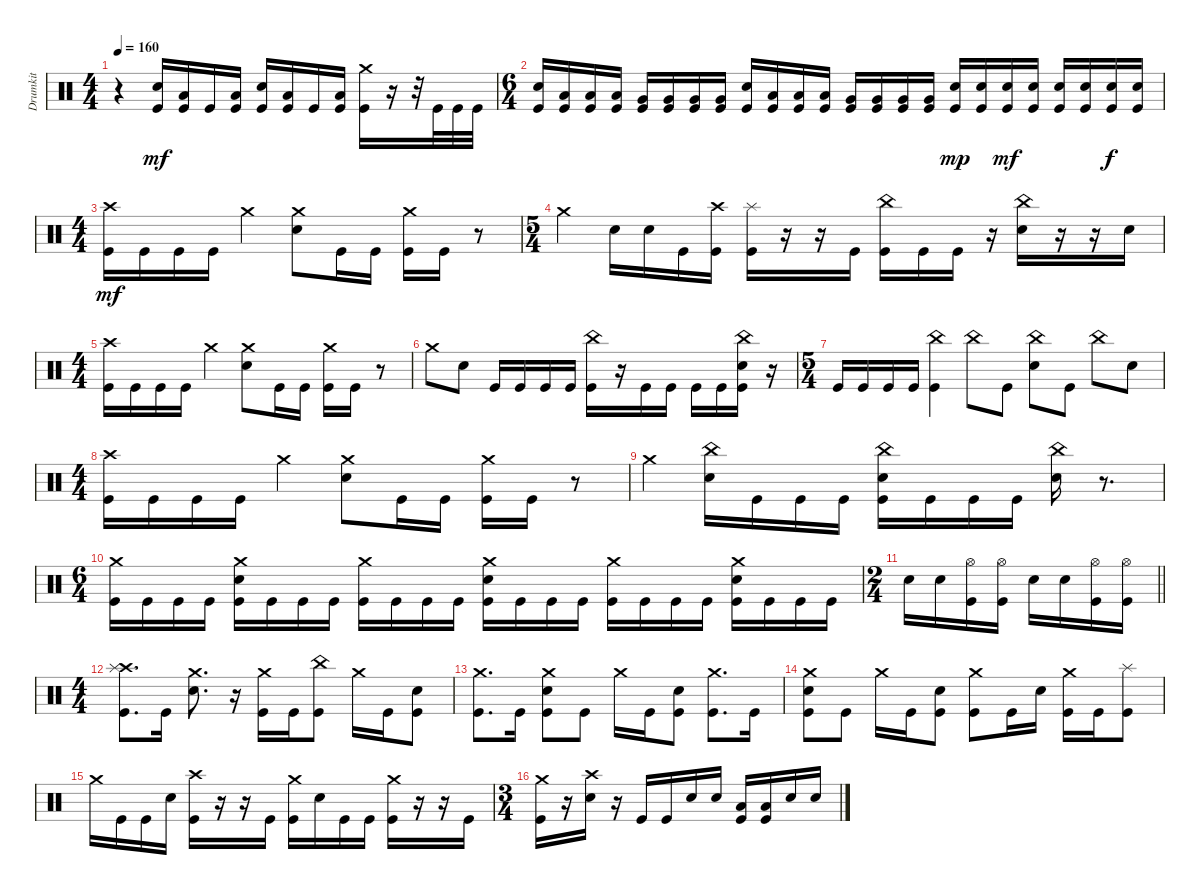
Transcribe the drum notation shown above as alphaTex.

\track ("Drumkit" "Drumkit") {instrument percussion}
\staff {score}
\articulation defaults
\ts (4 4)
\tempo 160
\clef neutral
\ks c
r.4{dy mf} ("Snare (hit) 2" "Kick (hit)").16 ("Kick (hit)" "Low Tom (hit)").16 "Kick (hit)".16 ("Kick (hit)" "Low Tom (hit)").16 ("Kick (hit)" "Snare (hit) 2").16 ("Kick (hit)" "Low Tom (hit)").16 "Kick (hit)".16 ("Kick (hit)" "Low Tom (hit)").16 ("Kick (hit)" "Crash medium (hit)").16 r.16 r.32 "Kick (hit)".32 "Kick (hit)".32 "Kick (hit)".32 |
\ts (6 4)
("Snare (hit) 2" "Kick (hit)").16 ("Kick (hit)" "Low Tom (hit)").16 ("Kick (hit)" "Low Tom (hit)").16 ("Kick (hit)" "Low Tom (hit)").16 ("Kick (hit)" "Very Low Tom (hit)").16 ("Kick (hit)" "Very Low Tom (hit)").16 ("Kick (hit)" "Very Low Tom (hit)").16 ("Kick (hit)" "Very Low Tom (hit)").16 ("Kick (hit)" "Snare (hit) 2").16 ("Kick (hit)" "Low Tom (hit)").16 ("Kick (hit)" "Low Tom (hit)").16 ("Kick (hit)" "Low Tom (hit)").16 ("Kick (hit)" "Very Low Tom (hit)").16 ("Kick (hit)" "Very Low Tom (hit)").16 ("Kick (hit)" "Very Low Tom (hit)").16 ("Kick (hit)" "Very Low Tom (hit)").16 ("Kick (hit)" "Snare (hit) 2").16{dy mp} ("Kick (hit)" "Snare (hit) 2").16 ("Kick (hit)" "Snare (hit) 2").16{dy mf} ("Kick (hit)" "Snare (hit) 2").16 ("Kick (hit)" "Snare (hit) 2").16 ("Kick (hit)" "Snare (hit) 2").16 ("Kick (hit)" "Snare (hit) 2").16{dy f} ("Kick (hit)" "Snare (hit) 2").16 |
\ts (4 4)
("Kick (hit)" "Crash high (hit)").16{dy mf} "Kick (hit)".16 "Kick (hit)".16 "Kick (hit)".16 "Crash medium (hit)".4 ("Crash medium (hit)" "Snare (hit) 2").8 "Kick (hit)".16 "Kick (hit)".16 ("Kick (hit)" "Crash medium (hit)").16 "Kick (hit)".16 r.8 |
\ts (5 4)
"Crash medium (hit)".4 "Snare (hit) 2".16 "Snare (hit) 2".16 "Kick (hit)".16 ("Kick (hit)" "Crash high (hit)").16 ("Kick (hit)" "Splash (hit)").16 r.16 r.16 "Kick (hit)".16 ("Kick (hit)" "China (hit)").16 "Kick (hit)".16 "Kick (hit)".16 r.16 ("Snare (hit) 2" "China (hit)").16 r.16 r.16 "Snare (hit) 2".16 |
\ts (4 4)
("Kick (hit)" "Crash high (hit)").16 "Kick (hit)".16 "Kick (hit)".16 "Kick (hit)".16 "Crash medium (hit)".4 ("Crash medium (hit)" "Snare (hit) 2").8 "Kick (hit)".16 "Kick (hit)".16 ("Kick (hit)" "Crash medium (hit)").16 "Kick (hit)".16 r.8 |
"Crash medium (hit)".8 "Snare (hit) 2".8 "Kick (hit)".16 "Kick (hit)".16 "Kick (hit)".16 "Kick (hit)".16 ("Kick (hit)" "China (hit)").16 r.16 "Kick (hit)".16 "Kick (hit)".16 "Kick (hit)".16 "Kick (hit)".16 ("Kick (hit)" "China (hit)" "Snare (hit) 2").16 r.16 |
\ts (5 4)
"Kick (hit)".16 "Kick (hit)".16 "Kick (hit)".16 "Kick (hit)".16 ("Kick (hit)" "China (hit)").4 "China (hit)".8 "Kick (hit)".8 ("Snare (hit) 2" "China (hit)").8 "Kick (hit)".8 "China (hit)".8 "Snare (hit) 2".8 |
\ts (4 4)
("Kick (hit)" "Crash high (hit)").16 "Kick (hit)".16 "Kick (hit)".16 "Kick (hit)".16 "Crash medium (hit)".4 ("Crash medium (hit)" "Snare (hit) 2").8 "Kick (hit)".16 "Kick (hit)".16 ("Kick (hit)" "Crash medium (hit)").16 "Kick (hit)".16 r.8 |
"Crash medium (hit)".4 ("Snare (hit) 2" "China (hit)").16 "Kick (hit)".16 "Kick (hit)".16 "Kick (hit)".16 ("Kick (hit)" "Snare (hit) 2" "China (hit)").16 "Kick (hit)".16 "Kick (hit)".16 "Kick (hit)".16 ("Snare (hit) 2" "China (hit)").16 r.8{d} |
\ts (6 4)
("Crash medium (hit)" "Kick (hit)").16 "Kick (hit)".16 "Kick (hit)".16 "Kick (hit)".16 ("Kick (hit)" "Crash medium (hit)" "Snare (hit) 2").16 "Kick (hit)".16 "Kick (hit)".16 "Kick (hit)".16 ("Kick (hit)" "Crash medium (hit)").16 "Kick (hit)".16 "Kick (hit)".16 "Kick (hit)".16 ("Kick (hit)" "Crash medium (hit)" "Snare (hit) 2").16 "Kick (hit)".16 "Kick (hit)".16 "Kick (hit)".16 ("Kick (hit)" "Crash medium (hit)").16 "Kick (hit)".16 "Kick (hit)".16 "Kick (hit)".16 ("Snare (hit) 2" "Kick (hit)" "Crash medium (hit)").16 "Kick (hit)".16 "Kick (hit)".16 "Kick (hit)".16 |
\ts (2 4)
\barLineRight lightlight "Snare (hit) 2".16 "Snare (hit) 2".16
("Kick (hit)" "Hi-Hat (open)").16 ("Kick (hit)" "Hi-Hat (open)").16 "Snare (hit) 2".16 "Snare (hit) 2".16 ("Kick (hit)" "Hi-Hat (open)").16 ("Kick (hit)" "Hi-Hat (open)").16 |
\ts (4 4)
("Kick (hit)" "Crash high (hit)" "Splash (hit)").8{d} "Kick (hit)".16 ("Snare (hit) 2" "Crash medium (hit)").8{d} r.16 ("Kick (hit)" "Crash medium (hit)").16 "Kick (hit)".16 ("Kick (hit)" "China (hit)").8 "Crash medium (hit)".16 "Kick (hit)".16 ("Snare (hit) 2" "Kick (hit)").8 |
("Kick (hit)" "Crash medium (hit)").8{d} "Kick (hit)".16 ("Snare (hit) 2" "Kick (hit)" "Crash medium (hit)").8 "Kick (hit)".8 "Crash medium (hit)".16 "Kick (hit)".16 ("Snare (hit) 2" "Kick (hit)").8 ("Kick (hit)" "Crash medium (hit)").8{d} "Kick (hit)".16 |
("Snare (hit) 2" "Kick (hit)" "Crash medium (hit)").8 "Kick (hit)".8 "Crash medium (hit)".16 "Kick (hit)".16 ("Snare (hit) 2" "Kick (hit)").8 ("Kick (hit)" "Crash medium (hit)").8 "Kick (hit)".16 "Snare (hit) 2".16 ("Kick (hit)" "Crash medium (hit)").16 "Kick (hit)".16 ("Kick (hit)" "Splash (hit)").8 |
"Crash medium (hit)".16 "Kick (hit)".16 "Kick (hit)".16 "Snare (hit) 2".16 ("Kick (hit)" "Crash high (hit)").16 r.16 r.16 "Kick (hit)".16 ("Kick (hit)" "Crash medium (hit)").16 "Snare (hit) 2".16 "Kick (hit)".16 "Kick (hit)".16 ("Kick (hit)" "Crash medium (hit)").16 r.16 r.16 "Kick (hit)".16 |
\ts (3 4)
("Kick (hit)" "Crash medium (hit)").16 r.16 ("Snare (hit) 2" "Crash high (hit)").16 r.16 "Kick (hit)".16 "Kick (hit)".16 "Snare (hit) 2".16 "Snare (hit) 2".16 ("Low Tom (hit)" "Kick (hit)").16 ("Low Tom (hit)" "Kick (hit)").16 "Snare (hit) 2".16 "Snare (hit) 2".16
